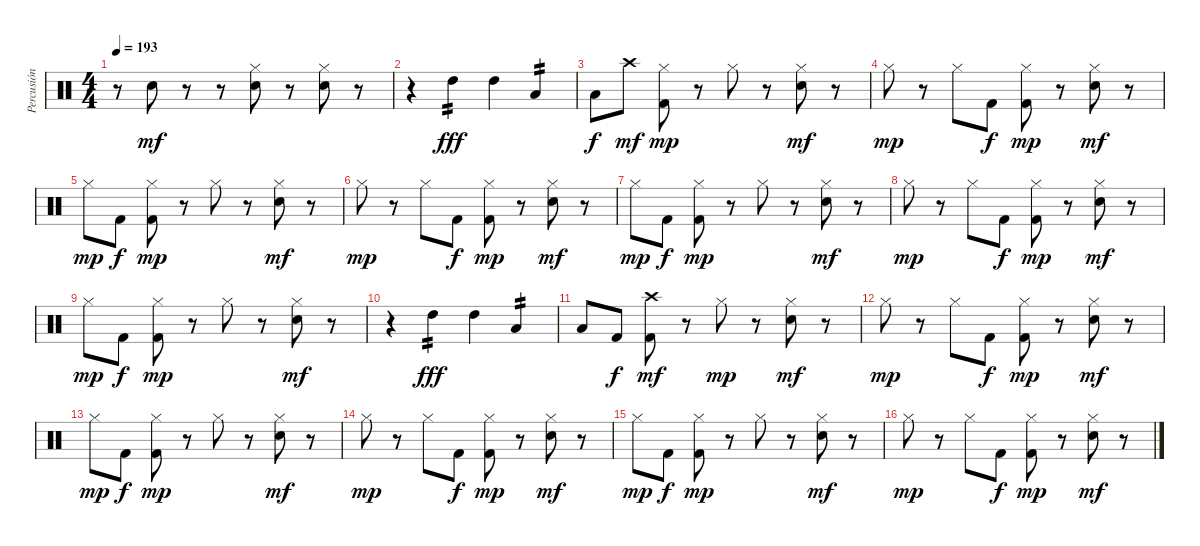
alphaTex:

\track ("Percusión" "Percusión") {instrument percussion}
\staff {score}
\articulation defaults
\ts (4 4)
\tempo 193
\clef neutral
\ks c
r.8{dy mf} "Electric Snare (hit)".8 r.8 r.8 ("Hi-Hat (closed)" "Electric Snare (hit)").8 r.8 ("Hi-Hat (closed)" "Electric Snare (hit)").8 r.8 |
r.4 "High Tom (hit)".4{tp 2 dy fff} "High Tom (hit)".4 "Low Tom (hit)".4{tp 2} |
"Low Tom (hit)".8{dy f} "Crash high (hit)".8{dy mf} ("Hi-Hat (closed)" "Kick (hit) 2").8{dy mp} r.8 "Hi-Hat (closed)".8 r.8 ("Hi-Hat (closed)" "Electric Snare (hit)").8{dy mf} r.8 |
"Hi-Hat (closed)".8{dy mp} r.8 "Hi-Hat (closed)".8 "Kick (hit) 2".8{dy f} ("Hi-Hat (closed)" "Kick (hit) 2").8{dy mp} r.8 ("Hi-Hat (closed)" "Electric Snare (hit)").8{dy mf} r.8 |
"Hi-Hat (closed)".8{dy mp} "Kick (hit) 2".8{dy f} ("Hi-Hat (closed)" "Kick (hit) 2").8{dy mp} r.8 "Hi-Hat (closed)".8 r.8 ("Hi-Hat (closed)" "Electric Snare (hit)").8{dy mf} r.8 |
"Hi-Hat (closed)".8{dy mp} r.8 "Hi-Hat (closed)".8 "Kick (hit) 2".8{dy f} ("Hi-Hat (closed)" "Kick (hit) 2").8{dy mp} r.8 ("Hi-Hat (closed)" "Electric Snare (hit)").8{dy mf} r.8 |
"Hi-Hat (closed)".8{dy mp} "Kick (hit) 2".8{dy f} ("Hi-Hat (closed)" "Kick (hit) 2").8{dy mp} r.8 "Hi-Hat (closed)".8 r.8 ("Hi-Hat (closed)" "Electric Snare (hit)").8{dy mf} r.8 |
"Hi-Hat (closed)".8{dy mp} r.8 "Hi-Hat (closed)".8 "Kick (hit) 2".8{dy f} ("Hi-Hat (closed)" "Kick (hit) 2").8{dy mp} r.8 ("Hi-Hat (closed)" "Electric Snare (hit)").8{dy mf} r.8 |
"Hi-Hat (closed)".8{dy mp} "Kick (hit) 2".8{dy f} ("Hi-Hat (closed)" "Kick (hit) 2").8{dy mp} r.8 "Hi-Hat (closed)".8 r.8 ("Hi-Hat (closed)" "Electric Snare (hit)").8{dy mf} r.8 |
r.4 "High Tom (hit)".4{tp 2 dy fff} "High Tom (hit)".4 "Low Tom (hit)".4{tp 2} |
"Low Tom (hit)".8 "Kick (hit) 2".8{dy f} ("Crash high (hit)" "Kick (hit) 2").8{dy mf} r.8 "Hi-Hat (closed)".8{dy mp} r.8 ("Hi-Hat (closed)" "Electric Snare (hit)").8{dy mf} r.8 |
"Hi-Hat (closed)".8{dy mp} r.8 "Hi-Hat (closed)".8 "Kick (hit) 2".8{dy f} ("Hi-Hat (closed)" "Kick (hit) 2").8{dy mp} r.8 ("Hi-Hat (closed)" "Electric Snare (hit)").8{dy mf} r.8 |
"Hi-Hat (closed)".8{dy mp} "Kick (hit) 2".8{dy f} ("Hi-Hat (closed)" "Kick (hit) 2").8{dy mp} r.8 "Hi-Hat (closed)".8 r.8 ("Hi-Hat (closed)" "Electric Snare (hit)").8{dy mf} r.8 |
"Hi-Hat (closed)".8{dy mp} r.8 "Hi-Hat (closed)".8 "Kick (hit) 2".8{dy f} ("Hi-Hat (closed)" "Kick (hit) 2").8{dy mp} r.8 ("Hi-Hat (closed)" "Electric Snare (hit)").8{dy mf} r.8 |
"Hi-Hat (closed)".8{dy mp} "Kick (hit) 2".8{dy f} ("Hi-Hat (closed)" "Kick (hit) 2").8{dy mp} r.8 "Hi-Hat (closed)".8 r.8 ("Hi-Hat (closed)" "Electric Snare (hit)").8{dy mf} r.8 |
"Hi-Hat (closed)".8{dy mp} r.8 "Hi-Hat (closed)".8 "Kick (hit) 2".8{dy f} ("Hi-Hat (closed)" "Kick (hit) 2").8{dy mp} r.8 ("Hi-Hat (closed)" "Electric Snare (hit)").8{dy mf} r.8
